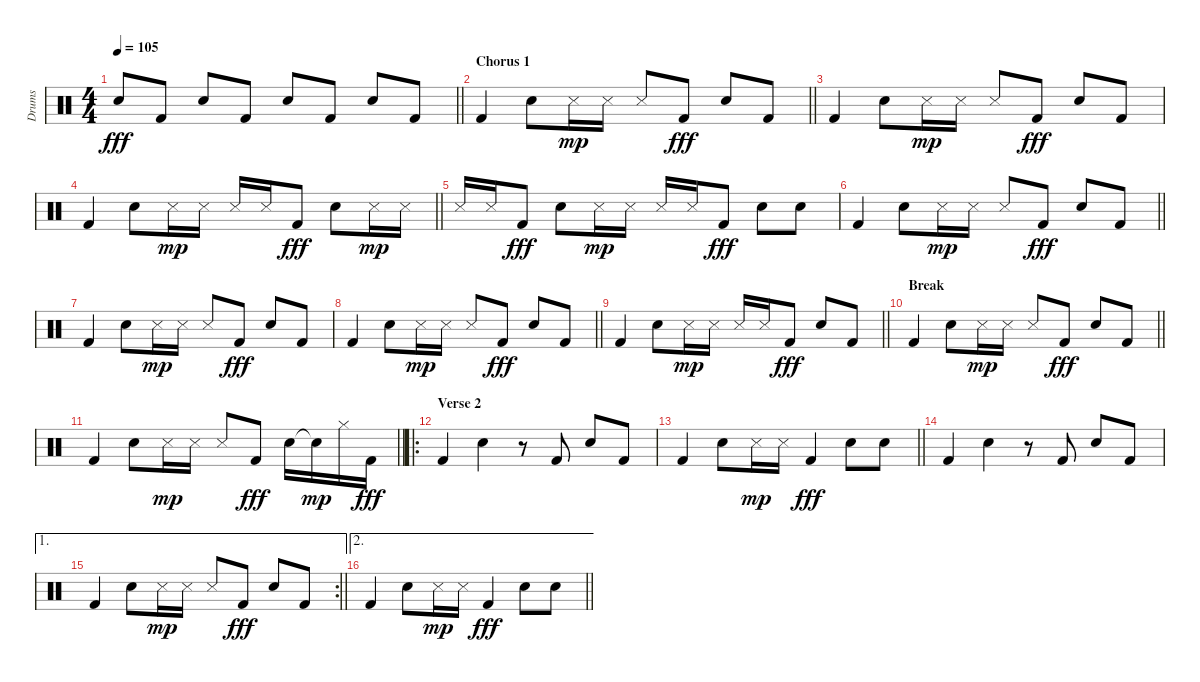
\track ("Drums" "Drums") {instrument percussion}
\staff {score}
\articulation defaults
\ts (4 4)
\tempo 105
\clef neutral
\barLineRight lightlight
\ks aminor "Electric Snare (hit)".8{dy fff} "Kick (hit) 2".8 "Electric Snare (hit)".8 "Kick (hit) 2".8 "Electric Snare (hit)".8 "Kick (hit) 2".8 "Electric Snare (hit)".8 "Kick (hit) 2".8
|
\section ("" "Chorus 1")
\barLineRight lightlight "Kick (hit) 2".4 "Electric Snare (hit)".8 "Snare (side stick) 3".16{dy mp} "Metronome (hit)".16 "Snare (side stick) 3".8 "Kick (hit) 2".8{dy fff} "Electric Snare (hit)".8 "Kick (hit) 2".8
|
"Kick (hit) 2".4 "Electric Snare (hit)".8 "Snare (side stick) 3".16{dy mp} "Metronome (hit)".16 "Snare (side stick) 3".8 "Kick (hit) 2".8{dy fff} "Electric Snare (hit)".8 "Kick (hit) 2".8 |
\barLineRight lightlight "Kick (hit) 2".4 "Electric Snare (hit)".8 "Snare (side stick) 3".16{dy mp} "Metronome (hit)".16 "Snare (side stick) 3".16 "Metronome (hit)".16 "Kick (hit) 2".8{dy fff} "Electric Snare (hit)".8 "Snare (side stick) 3".16{dy mp} "Metronome (hit)".16
|
"Snare (side stick) 3".16 "Metronome (hit)".16 "Kick (hit) 2".8{dy fff} "Electric Snare (hit)".8 "Snare (side stick) 3".16{dy mp} "Metronome (hit)".16 "Snare (side stick) 3".16 "Metronome (hit)".16 "Kick (hit) 2".8{dy fff} "Electric Snare (hit)".8 "Electric Snare (hit)".8 |
\barLineRight lightlight "Kick (hit) 2".4 "Electric Snare (hit)".8 "Snare (side stick) 3".16{dy mp} "Metronome (hit)".16 "Snare (side stick) 3".8 "Kick (hit) 2".8{dy fff} "Electric Snare (hit)".8 "Kick (hit) 2".8
|
"Kick (hit) 2".4 "Electric Snare (hit)".8 "Snare (side stick) 3".16{dy mp} "Metronome (hit)".16 "Snare (side stick) 3".8 "Kick (hit) 2".8{dy fff} "Electric Snare (hit)".8 "Kick (hit) 2".8 |
\barLineRight lightlight "Kick (hit) 2".4 "Electric Snare (hit)".8 "Snare (side stick) 3".16{dy mp} "Metronome (hit)".16 "Snare (side stick) 3".8 "Kick (hit) 2".8{dy fff} "Electric Snare (hit)".8 "Kick (hit) 2".8
|
\barLineRight lightlight "Kick (hit) 2".4 "Electric Snare (hit)".8 "Snare (side stick) 3".16{dy mp} "Metronome (hit)".16 "Snare (side stick) 3".16 "Metronome (hit)".16 "Kick (hit) 2".8{dy fff} "Electric Snare (hit)".8 "Kick (hit) 2".8
|
\section ("" "Break")
\barLineRight lightlight "Kick (hit) 2".4 "Electric Snare (hit)".8 "Snare (side stick) 3".16{dy mp} "Metronome (hit)".16 "Snare (side stick) 3".8 "Kick (hit) 2".8{dy fff} "Electric Snare (hit)".8 "Kick (hit) 2".8
|
\barLineRight lightlight "Kick (hit) 2".4 "Electric Snare (hit)".8 "Snare (side stick) 3".16{dy mp} "Metronome (hit)".16 "Snare (side stick) 3".8 "Kick (hit) 2".8{dy fff} "Electric Snare (hit)".16 "Snare (hit)"{t}.16{dy mp} "Hi-Hat (closed)".16 "Kick (hit) 2".16{dy fff}
|
\ro
\section ("" "Verse 2")
"Kick (hit) 2".4 "Electric Snare (hit)".4 r.8 "Kick (hit) 2".8 "Electric Snare (hit)".8 "Kick (hit) 2".8 |
\barLineRight lightlight "Kick (hit) 2".4 "Electric Snare (hit)".8 "Snare (side stick) 3".16{dy mp} "Metronome (hit)".16 "Kick (hit) 2".4{dy fff} "Electric Snare (hit)".8 "Electric Snare (hit)".8
|
"Kick (hit) 2".4 "Electric Snare (hit)".4 r.8 "Kick (hit) 2".8 "Electric Snare (hit)".8 "Kick (hit) 2".8 |
\ae 1
\rc 2
\barLineRight lightlight "Kick (hit) 2".4 "Electric Snare (hit)".8 "Snare (side stick) 3".16{dy mp} "Metronome (hit)".16 "Snare (side stick) 3".8 "Kick (hit) 2".8{dy fff} "Electric Snare (hit)".8 "Kick (hit) 2".8
|
\ae 2
\barLineRight lightlight "Kick (hit) 2".4 "Electric Snare (hit)".8 "Snare (side stick) 3".16{dy mp} "Metronome (hit)".16 "Kick (hit) 2".4{dy fff} "Electric Snare (hit)".8 "Electric Snare (hit)".8
